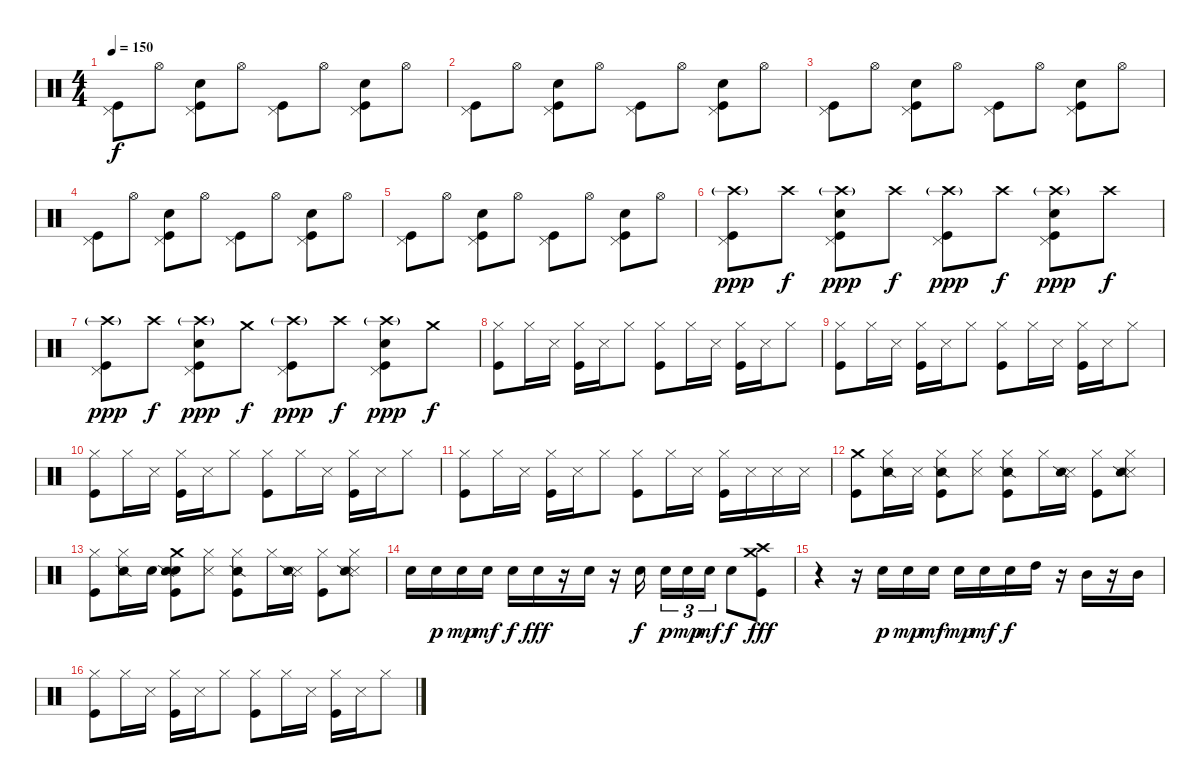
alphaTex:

\track "" {instrument percussion}
\staff {score}
\articulation defaults
\ts (4 4)
\tempo 150
\clef neutral
\ks c
("Pedal Hi-Hat (hit)" "Kick (hit)").8{dy f} "Hi-Hat (open)".8 ("Pedal Hi-Hat (hit)" "Electric Snare (hit)" "Kick (hit)").8 "Hi-Hat (open)".8 ("Pedal Hi-Hat (hit)" "Kick (hit)").8 "Hi-Hat (open)".8 ("Pedal Hi-Hat (hit)" "Electric Snare (hit)" "Kick (hit)").8 "Hi-Hat (open)".8 |
("Pedal Hi-Hat (hit)" "Kick (hit)").8 "Hi-Hat (open)".8 ("Pedal Hi-Hat (hit)" "Electric Snare (hit)" "Kick (hit)").8 "Hi-Hat (open)".8 ("Pedal Hi-Hat (hit)" "Kick (hit)").8 "Hi-Hat (open)".8 ("Pedal Hi-Hat (hit)" "Electric Snare (hit)" "Kick (hit)").8 "Hi-Hat (open)".8 |
("Pedal Hi-Hat (hit)" "Kick (hit)").8 "Hi-Hat (open)".8 ("Pedal Hi-Hat (hit)" "Electric Snare (hit)" "Kick (hit)").8 "Hi-Hat (open)".8 ("Pedal Hi-Hat (hit)" "Kick (hit)").8 "Hi-Hat (open)".8 ("Pedal Hi-Hat (hit)" "Electric Snare (hit)" "Kick (hit)").8 "Hi-Hat (open)".8 |
("Pedal Hi-Hat (hit)" "Kick (hit)").8 "Hi-Hat (open)".8 ("Pedal Hi-Hat (hit)" "Electric Snare (hit)" "Kick (hit)").8 "Hi-Hat (open)".8 ("Pedal Hi-Hat (hit)" "Kick (hit)").8 "Hi-Hat (open)".8 ("Pedal Hi-Hat (hit)" "Electric Snare (hit)" "Kick (hit)").8 "Hi-Hat (open)".8 |
("Pedal Hi-Hat (hit)" "Kick (hit)").8 "Hi-Hat (open)".8 ("Pedal Hi-Hat (hit)" "Electric Snare (hit)" "Kick (hit)").8 "Hi-Hat (open)".8 ("Pedal Hi-Hat (hit)" "Kick (hit)").8 "Hi-Hat (open)".8 ("Pedal Hi-Hat (hit)" "Electric Snare (hit)" "Kick (hit)").8 "Hi-Hat (open)".8 |
("Crash high (hit)"{g} "Pedal Hi-Hat (hit)" "Kick (hit)").8{dy ppp} "Crash high (hit)".8{dy f} ("Crash high (hit)"{g} "Pedal Hi-Hat (hit)" "Electric Snare (hit)" "Kick (hit)").8{dy ppp} "Crash high (hit)".8{dy f} ("Crash high (hit)"{g} "Pedal Hi-Hat (hit)" "Kick (hit)").8{dy ppp} "Crash high (hit)".8{dy f} ("Crash high (hit)"{g} "Pedal Hi-Hat (hit)" "Electric Snare (hit)" "Kick (hit)").8{dy ppp} "Crash high (hit)".8{dy f} |
("Crash high (hit)"{g} "Pedal Hi-Hat (hit)" "Kick (hit)").8{dy ppp} "Crash high (hit)".8{dy f} ("Crash high (hit)"{g} "Pedal Hi-Hat (hit)" "Electric Snare (hit)" "Kick (hit)").8{dy ppp} "Crash medium (hit)".8{dy f} ("Crash high (hit)"{g} "Pedal Hi-Hat (hit)" "Kick (hit)").8{dy ppp} "Crash high (hit)".8{dy f} ("Crash high (hit)"{g} "Pedal Hi-Hat (hit)" "Electric Snare (hit)" "Kick (hit)").8{dy ppp} "Crash medium (hit)".8{dy f} |
("Hi-Hat (closed)" "Kick (hit)").8 "Hi-Hat (closed)".16 "Snare (side stick) 3".16 ("Hi-Hat (closed)" "Kick (hit)").16 "Snare (side stick) 3".16 "Hi-Hat (closed)".8 ("Hi-Hat (closed)" "Kick (hit)").8 "Hi-Hat (closed)".16 "Snare (side stick) 3".16 ("Hi-Hat (closed)" "Kick (hit)").16 "Snare (side stick) 3".16 "Hi-Hat (closed)".8 |
("Hi-Hat (closed)" "Kick (hit)").8 "Hi-Hat (closed)".16 "Snare (side stick) 3".16 ("Hi-Hat (closed)" "Kick (hit)").16 "Snare (side stick) 3".16 "Hi-Hat (closed)".8 ("Hi-Hat (closed)" "Kick (hit)").8 "Hi-Hat (closed)".16 "Snare (side stick) 3".16 ("Hi-Hat (closed)" "Kick (hit)").16 "Snare (side stick) 3".16 "Hi-Hat (closed)".8 |
("Hi-Hat (closed)" "Kick (hit)").8 "Hi-Hat (closed)".16 "Snare (side stick) 3".16 ("Hi-Hat (closed)" "Kick (hit)").16 "Snare (side stick) 3".16 "Hi-Hat (closed)".8 ("Hi-Hat (closed)" "Kick (hit)").8 "Hi-Hat (closed)".16 "Snare (side stick) 3".16 ("Hi-Hat (closed)" "Kick (hit)").16 "Snare (side stick) 3".16 "Hi-Hat (closed)".8 |
("Hi-Hat (closed)" "Kick (hit)").8 "Hi-Hat (closed)".16 "Snare (side stick) 3".16 ("Hi-Hat (closed)" "Kick (hit)").16 "Snare (side stick) 3".16 "Hi-Hat (closed)".8 ("Hi-Hat (closed)" "Kick (hit)").8 "Hi-Hat (closed)".16 "Snare (side stick) 3".16 ("Hi-Hat (closed)" "Kick (hit)").16 "Snare (side stick) 3".16 "Snare (side stick) 3".16 "Snare (side stick) 3".16 |
("Crash medium (hit)" "Kick (hit)").8 ("Hi-Hat (closed)" "Snare (side stick) 2").16 "Snare (side stick) 3".16 ("Hi-Hat (closed)" "Snare (side stick) 2" "Kick (hit)").8 ("Hi-Hat (closed)" "Snare (side stick) 3").8 ("Hi-Hat (closed)" "Snare (side stick) 2" "Kick (hit)").8 "Hi-Hat (closed)".16 ("Snare (side stick) 3" "Snare (side stick) 2").16 ("Hi-Hat (closed)" "Kick (hit)").8 ("Hi-Hat (closed)" "Snare (side stick) 3" "Snare (side stick) 2").8 |
("Hi-Hat (closed)" "Kick (hit)").8 ("Hi-Hat (closed)" "Snare (side stick) 2").16 "Electric Snare (hit)".16 ("Crash medium (hit)" "Electric Snare (hit)" "Snare (side stick) 2" "Kick (hit)").8 ("Hi-Hat (closed)" "Snare (side stick) 3").8 ("Hi-Hat (closed)" "Snare (side stick) 2" "Kick (hit)").8 "Hi-Hat (closed)".16 ("Snare (side stick) 3" "Snare (side stick) 2").16 ("Hi-Hat (closed)" "Kick (hit)").8 ("Hi-Hat (closed)" "Snare (side stick) 3" "Snare (side stick) 2").8 |
"Electric Snare (hit)".16 "Electric Snare (hit)".16{dy p} "Electric Snare (hit)".16{dy mp} "Electric Snare (hit)".16{dy mf} "Electric Snare (hit)".16{dy f} "Electric Snare (hit)".16{dy fff} r.16 "Electric Snare (hit)".16 r.16 "Electric Snare (hit)".16{dy f} "Electric Snare (hit)".16{tu (3 2) dy p} "Electric Snare (hit)".16{tu (3 2) dy mp} "Electric Snare (hit)".16{tu (3 2) dy mf} "Electric Snare (hit)".8{dy f} ("Crash high (hit)" "Crash medium (hit)" "Kick (hit)").8{dy fff} |
r.4 r.16 "Electric Snare (hit)".16{dy p} "Electric Snare (hit)".16{dy mp} "Electric Snare (hit)".16{dy mf} "Electric Snare (hit)".16{dy mp} "Electric Snare (hit)".16{dy mf} "Electric Snare (hit)".16{dy f} "High Tom (hit)".16 r.16 "Mid Tom (hit)".16 r.16 "Mid Tom (hit)".16 |
("Hi-Hat (closed)" "Kick (hit)").8 "Hi-Hat (closed)".16 "Snare (side stick) 3".16 ("Hi-Hat (closed)" "Kick (hit)").16 "Snare (side stick) 3".16 "Hi-Hat (closed)".8 ("Hi-Hat (closed)" "Kick (hit)").8 "Hi-Hat (closed)".16 "Snare (side stick) 3".16 ("Hi-Hat (closed)" "Kick (hit)").16 "Snare (side stick) 3".16 "Hi-Hat (closed)".8
